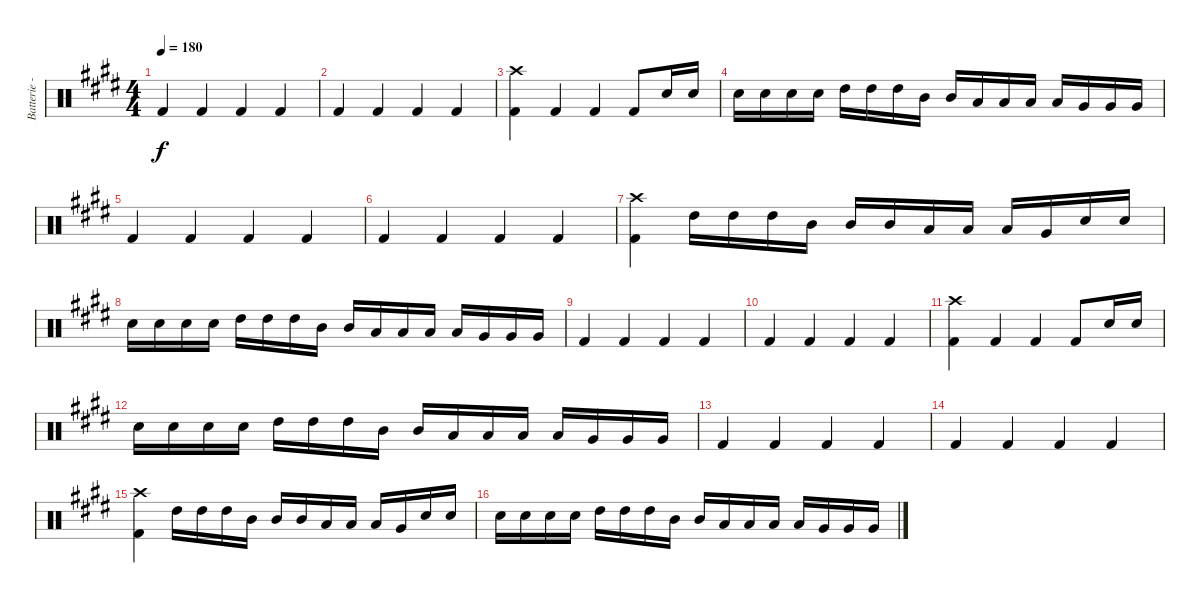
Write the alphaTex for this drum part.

\track ("Batterie - Stevo" "Batterie -") {instrument percussion}
\staff {score}
\articulation defaults
\ts (4 4)
\tempo 180
\clef neutral
\ks e "Kick (hit) 2".4{dy f} "Kick (hit) 2".4 "Kick (hit) 2".4 "Kick (hit) 2".4
|
"Kick (hit) 2".4 "Kick (hit) 2".4 "Kick (hit) 2".4 "Kick (hit) 2".4 |
("Kick (hit) 2" "Crash high (hit)").4 "Kick (hit) 2".4 "Kick (hit) 2".4 "Kick (hit) 2".8 "Electric Snare (hit)".16 "Electric Snare (hit)".16 |
"Electric Snare (hit)".16 "Electric Snare (hit)".16 "Electric Snare (hit)".16 "Electric Snare (hit)".16 "High Tom (hit)".16 "High Tom (hit)".16 "High Tom (hit)".16 "Mid Tom (hit)".16 "Mid Tom (hit)".16 "Low Tom (hit)".16 "Low Tom (hit)".16 "Low Tom (hit)".16 "Low Tom (hit)".16 "Very Low Tom (hit)".16 "Very Low Tom (hit)".16 "Very Low Tom (hit)".16 |
"Kick (hit) 2".4 "Kick (hit) 2".4 "Kick (hit) 2".4 "Kick (hit) 2".4 |
"Kick (hit) 2".4 "Kick (hit) 2".4 "Kick (hit) 2".4 "Kick (hit) 2".4 |
("Kick (hit) 2" "Crash high (hit)").4 "High Tom (hit)".16 "High Tom (hit)".16 "High Tom (hit)".16 "Mid Tom (hit)".16 "Mid Tom (hit)".16 "Mid Tom (hit)".16 "Low Tom (hit)".16 "Low Tom (hit)".16 "Low Tom (hit)".16 "Very Low Tom (hit)".16 "Electric Snare (hit)".16 "Electric Snare (hit)".16 |
"Electric Snare (hit)".16 "Electric Snare (hit)".16 "Electric Snare (hit)".16 "Electric Snare (hit)".16 "High Tom (hit)".16 "High Tom (hit)".16 "High Tom (hit)".16 "Mid Tom (hit)".16 "Mid Tom (hit)".16 "Low Tom (hit)".16 "Low Tom (hit)".16 "Low Tom (hit)".16 "Low Tom (hit)".16 "Very Low Tom (hit)".16 "Very Low Tom (hit)".16 "Very Low Tom (hit)".16 |
"Kick (hit) 2".4 "Kick (hit) 2".4 "Kick (hit) 2".4 "Kick (hit) 2".4 |
"Kick (hit) 2".4 "Kick (hit) 2".4 "Kick (hit) 2".4 "Kick (hit) 2".4 |
("Kick (hit) 2" "Crash high (hit)").4 "Kick (hit) 2".4 "Kick (hit) 2".4 "Kick (hit) 2".8 "Electric Snare (hit)".16 "Electric Snare (hit)".16 |
"Electric Snare (hit)".16 "Electric Snare (hit)".16 "Electric Snare (hit)".16 "Electric Snare (hit)".16 "High Tom (hit)".16 "High Tom (hit)".16 "High Tom (hit)".16 "Mid Tom (hit)".16 "Mid Tom (hit)".16 "Low Tom (hit)".16 "Low Tom (hit)".16 "Low Tom (hit)".16 "Low Tom (hit)".16 "Very Low Tom (hit)".16 "Very Low Tom (hit)".16 "Very Low Tom (hit)".16 |
"Kick (hit) 2".4 "Kick (hit) 2".4 "Kick (hit) 2".4 "Kick (hit) 2".4 |
"Kick (hit) 2".4 "Kick (hit) 2".4 "Kick (hit) 2".4 "Kick (hit) 2".4 |
("Kick (hit) 2" "Crash high (hit)").4 "High Tom (hit)".16 "High Tom (hit)".16 "High Tom (hit)".16 "Mid Tom (hit)".16 "Mid Tom (hit)".16 "Mid Tom (hit)".16 "Low Tom (hit)".16 "Low Tom (hit)".16 "Low Tom (hit)".16 "Very Low Tom (hit)".16 "Electric Snare (hit)".16 "Electric Snare (hit)".16 |
"Electric Snare (hit)".16 "Electric Snare (hit)".16 "Electric Snare (hit)".16 "Electric Snare (hit)".16 "High Tom (hit)".16 "High Tom (hit)".16 "High Tom (hit)".16 "Mid Tom (hit)".16 "Mid Tom (hit)".16 "Low Tom (hit)".16 "Low Tom (hit)".16 "Low Tom (hit)".16 "Low Tom (hit)".16 "Very Low Tom (hit)".16 "Very Low Tom (hit)".16 "Very Low Tom (hit)".16
